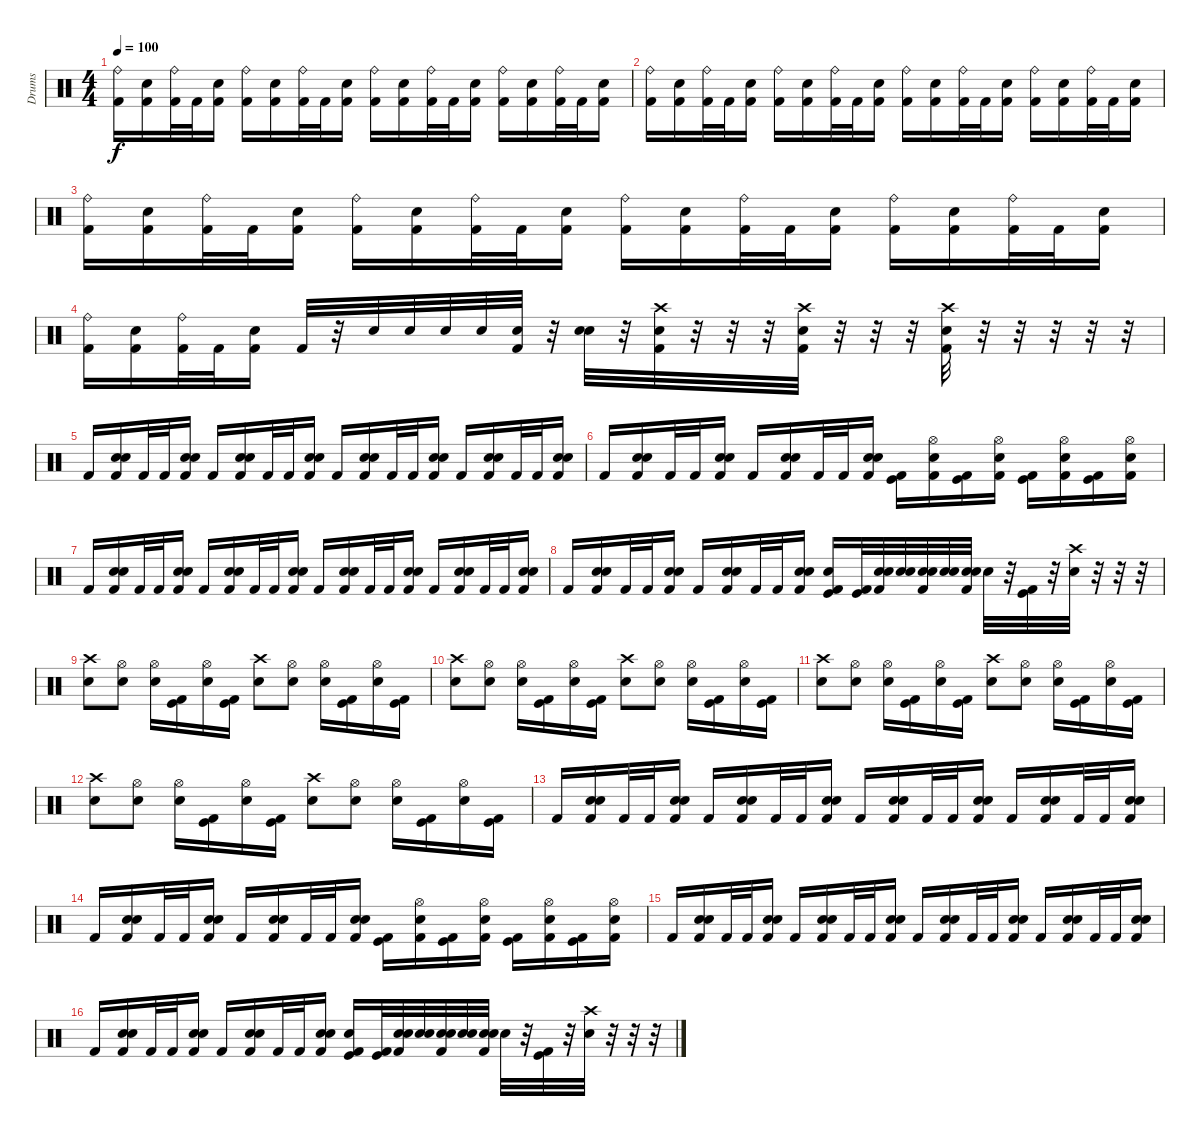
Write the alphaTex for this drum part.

\track ("Drums" "Drums") {instrument percussion}
\staff {score}
\articulation defaults
\ts (4 4)
\tempo 100
\clef neutral
\ks c
("Ride (bell)" "Kick (hit) 2").16{dy f} ("Electric Snare (hit)" "Kick (hit) 2").16 ("Ride (bell)" "Kick (hit) 2").32 "Kick (hit) 2".32 ("Electric Snare (hit)" "Kick (hit) 2").16 ("Ride (bell)" "Kick (hit) 2").16 ("Electric Snare (hit)" "Kick (hit) 2").16 ("Ride (bell)" "Kick (hit) 2").32 "Kick (hit) 2".32 ("Electric Snare (hit)" "Kick (hit) 2").16 ("Ride (bell)" "Kick (hit) 2").16 ("Electric Snare (hit)" "Kick (hit) 2").16 ("Ride (bell)" "Kick (hit) 2").32 "Kick (hit) 2".32 ("Electric Snare (hit)" "Kick (hit) 2").16 ("Ride (bell)" "Kick (hit) 2").16 ("Electric Snare (hit)" "Kick (hit) 2").16 ("Ride (bell)" "Kick (hit) 2").32 "Kick (hit) 2".32 ("Electric Snare (hit)" "Kick (hit) 2").16 |
("Ride (bell)" "Kick (hit) 2").16 ("Electric Snare (hit)" "Kick (hit) 2").16 ("Ride (bell)" "Kick (hit) 2").32 "Kick (hit) 2".32 ("Electric Snare (hit)" "Kick (hit) 2").16 ("Ride (bell)" "Kick (hit) 2").16 ("Electric Snare (hit)" "Kick (hit) 2").16 ("Ride (bell)" "Kick (hit) 2").32 "Kick (hit) 2".32 ("Electric Snare (hit)" "Kick (hit) 2").16 ("Ride (bell)" "Kick (hit) 2").16 ("Electric Snare (hit)" "Kick (hit) 2").16 ("Ride (bell)" "Kick (hit) 2").32 "Kick (hit) 2".32 ("Electric Snare (hit)" "Kick (hit) 2").16 ("Ride (bell)" "Kick (hit) 2").16 ("Electric Snare (hit)" "Kick (hit) 2").16 ("Ride (bell)" "Kick (hit) 2").32 "Kick (hit) 2".32 ("Electric Snare (hit)" "Kick (hit) 2").16 |
("Ride (bell)" "Kick (hit) 2").16 ("Electric Snare (hit)" "Kick (hit) 2").16 ("Ride (bell)" "Kick (hit) 2").32 "Kick (hit) 2".32 ("Electric Snare (hit)" "Kick (hit) 2").16 ("Ride (bell)" "Kick (hit) 2").16 ("Electric Snare (hit)" "Kick (hit) 2").16 ("Ride (bell)" "Kick (hit) 2").32 "Kick (hit) 2".32 ("Electric Snare (hit)" "Kick (hit) 2").16 ("Ride (bell)" "Kick (hit) 2").16 ("Electric Snare (hit)" "Kick (hit) 2").16 ("Ride (bell)" "Kick (hit) 2").32 "Kick (hit) 2".32 ("Electric Snare (hit)" "Kick (hit) 2").16 ("Ride (bell)" "Kick (hit) 2").16 ("Electric Snare (hit)" "Kick (hit) 2").16 ("Ride (bell)" "Kick (hit) 2").32 "Kick (hit) 2".32 ("Electric Snare (hit)" "Kick (hit) 2").16 |
("Ride (bell)" "Kick (hit) 2").16 ("Electric Snare (hit)" "Kick (hit) 2").16 ("Ride (bell)" "Kick (hit) 2").32 "Kick (hit) 2".32 ("Electric Snare (hit)" "Kick (hit) 2").16 "Kick (hit) 2".32 r.32 "Electric Snare (hit)".32 "Electric Snare (hit)".32 "Electric Snare (hit)".32 "Electric Snare (hit)".32 ("Electric Snare (hit)" "Kick (hit) 2").32 r.32 ("Electric Snare (hit)" "Electric Snare (hit)").32 r.32 ("Crash high (hit)" "Electric Snare (hit)" "Kick (hit) 2").32 r.32 r.32 r.32 ("Crash high (hit)" "Electric Snare (hit)" "Kick (hit) 2").32 r.32 r.32 r.32 ("Crash high (hit)" "Electric Snare (hit)" "Kick (hit) 2").32 r.32 r.32 r.32 r.32 r.32 |
"Kick (hit) 2".16 ("Electric Snare (hit)" "Snare (hit) 2" "Kick (hit) 2").16 "Kick (hit) 2".32 "Kick (hit) 2".32 ("Electric Snare (hit)" "Snare (hit) 2" "Kick (hit) 2").16 "Kick (hit) 2".16 ("Electric Snare (hit)" "Snare (hit) 2" "Kick (hit) 2").16 "Kick (hit) 2".32 "Kick (hit) 2".32 ("Electric Snare (hit)" "Snare (hit) 2" "Kick (hit) 2").16 "Kick (hit) 2".16 ("Electric Snare (hit)" "Snare (hit) 2" "Kick (hit) 2").16 "Kick (hit) 2".32 "Kick (hit) 2".32 ("Electric Snare (hit)" "Snare (hit) 2" "Kick (hit) 2").16 "Kick (hit) 2".16 ("Electric Snare (hit)" "Snare (hit) 2" "Kick (hit) 2").16 "Kick (hit) 2".32 "Kick (hit) 2".32 ("Electric Snare (hit)" "Snare (hit) 2" "Kick (hit) 2").16 |
"Kick (hit) 2".16 ("Electric Snare (hit)" "Snare (hit) 2" "Kick (hit) 2").16 "Kick (hit) 2".32 "Kick (hit) 2".32 ("Electric Snare (hit)" "Snare (hit) 2" "Kick (hit) 2").16 "Kick (hit) 2".16 ("Electric Snare (hit)" "Snare (hit) 2" "Kick (hit) 2").16 "Kick (hit) 2".32 "Kick (hit) 2".32 ("Electric Snare (hit)" "Snare (hit) 2" "Kick (hit) 2").16 ("Kick (hit)" "Kick (hit) 2").16 ("Hi-Hat (open)" "Snare (hit) 2" "Kick (hit) 2").16 ("Kick (hit)" "Kick (hit) 2").16 ("Hi-Hat (open)" "Snare (hit) 2" "Kick (hit) 2").16 ("Kick (hit)" "Kick (hit) 2").16 ("Hi-Hat (open)" "Snare (hit) 2" "Kick (hit) 2").16 ("Kick (hit)" "Kick (hit) 2").16 ("Hi-Hat (open)" "Snare (hit) 2" "Kick (hit) 2").16 |
"Kick (hit) 2".16 ("Electric Snare (hit)" "Snare (hit) 2" "Kick (hit) 2").16 "Kick (hit) 2".32 "Kick (hit) 2".32 ("Electric Snare (hit)" "Snare (hit) 2" "Kick (hit) 2").16 "Kick (hit) 2".16 ("Electric Snare (hit)" "Snare (hit) 2" "Kick (hit) 2").16 "Kick (hit) 2".32 "Kick (hit) 2".32 ("Electric Snare (hit)" "Snare (hit) 2" "Kick (hit) 2").16 "Kick (hit) 2".16 ("Electric Snare (hit)" "Snare (hit) 2" "Kick (hit) 2").16 "Kick (hit) 2".32 "Kick (hit) 2".32 ("Electric Snare (hit)" "Snare (hit) 2" "Kick (hit) 2").16 "Kick (hit) 2".16 ("Electric Snare (hit)" "Snare (hit) 2" "Kick (hit) 2").16 "Kick (hit) 2".32 "Kick (hit) 2".32 ("Electric Snare (hit)" "Snare (hit) 2" "Kick (hit) 2").16 |
"Kick (hit) 2".16 ("Electric Snare (hit)" "Snare (hit) 2" "Kick (hit) 2").16 "Kick (hit) 2".32 "Kick (hit) 2".32 ("Electric Snare (hit)" "Snare (hit) 2" "Kick (hit) 2").16 "Kick (hit) 2".16 ("Electric Snare (hit)" "Snare (hit) 2" "Kick (hit) 2").16 "Kick (hit) 2".32 "Kick (hit) 2".32 ("Electric Snare (hit)" "Snare (hit) 2" "Kick (hit) 2").16 ("Electric Snare (hit)" "Kick (hit)" "Kick (hit) 2").16 ("Kick (hit)" "Kick (hit) 2").32 ("Snare (hit) 2" "Electric Snare (hit)" "Kick (hit) 2").32 ("Snare (hit) 2" "Electric Snare (hit)").32 ("Snare (hit) 2" "Electric Snare (hit)" "Kick (hit) 2").32 ("Snare (hit) 2" "Electric Snare (hit)").32 ("Snare (hit) 2" "Electric Snare (hit)" "Kick (hit) 2").32 "Electric Snare (hit)".32 r.32 ("Kick (hit) 2" "Kick (hit)").32 r.32 ("Crash high (hit)" "Electric Snare (hit)").32 r.32 r.32 r.32 |
("Crash high (hit)" "Electric Snare (hit)").8 ("Hi-Hat (open)" "Electric Snare (hit)").8 ("Hi-Hat (open)" "Electric Snare (hit)").16 ("Kick (hit)" "Kick (hit) 2").16 ("Hi-Hat (open)" "Electric Snare (hit)").16 ("Kick (hit)" "Kick (hit) 2").16 ("Crash high (hit)" "Electric Snare (hit)").8 ("Hi-Hat (open)" "Electric Snare (hit)").8 ("Hi-Hat (open)" "Electric Snare (hit)").16 ("Kick (hit)" "Kick (hit) 2").16 ("Hi-Hat (open)" "Electric Snare (hit)").16 ("Kick (hit)" "Kick (hit) 2").16 |
("Crash high (hit)" "Electric Snare (hit)").8 ("Hi-Hat (open)" "Electric Snare (hit)").8 ("Hi-Hat (open)" "Electric Snare (hit)").16 ("Kick (hit)" "Kick (hit) 2").16 ("Hi-Hat (open)" "Electric Snare (hit)").16 ("Kick (hit)" "Kick (hit) 2").16 ("Crash high (hit)" "Electric Snare (hit)").8 ("Hi-Hat (open)" "Electric Snare (hit)").8 ("Hi-Hat (open)" "Electric Snare (hit)").16 ("Kick (hit)" "Kick (hit) 2").16 ("Hi-Hat (open)" "Electric Snare (hit)").16 ("Kick (hit)" "Kick (hit) 2").16 |
("Crash high (hit)" "Electric Snare (hit)").8 ("Hi-Hat (open)" "Electric Snare (hit)").8 ("Hi-Hat (open)" "Electric Snare (hit)").16 ("Kick (hit)" "Kick (hit) 2").16 ("Hi-Hat (open)" "Electric Snare (hit)").16 ("Kick (hit)" "Kick (hit) 2").16 ("Crash high (hit)" "Electric Snare (hit)").8 ("Hi-Hat (open)" "Electric Snare (hit)").8 ("Hi-Hat (open)" "Electric Snare (hit)").16 ("Kick (hit)" "Kick (hit) 2").16 ("Hi-Hat (open)" "Electric Snare (hit)").16 ("Kick (hit)" "Kick (hit) 2").16 |
("Crash high (hit)" "Electric Snare (hit)").8 ("Hi-Hat (open)" "Electric Snare (hit)").8 ("Hi-Hat (open)" "Electric Snare (hit)").16 ("Kick (hit)" "Kick (hit) 2").16 ("Hi-Hat (open)" "Electric Snare (hit)").16 ("Kick (hit)" "Kick (hit) 2").16 ("Crash high (hit)" "Electric Snare (hit)").8 ("Hi-Hat (open)" "Electric Snare (hit)").8 ("Hi-Hat (open)" "Electric Snare (hit)").16 ("Kick (hit)" "Kick (hit) 2").16 ("Hi-Hat (open)" "Electric Snare (hit)").16 ("Kick (hit)" "Kick (hit) 2").16 |
"Kick (hit) 2".16 ("Electric Snare (hit)" "Snare (hit) 2" "Kick (hit) 2").16 "Kick (hit) 2".32 "Kick (hit) 2".32 ("Electric Snare (hit)" "Snare (hit) 2" "Kick (hit) 2").16 "Kick (hit) 2".16 ("Electric Snare (hit)" "Snare (hit) 2" "Kick (hit) 2").16 "Kick (hit) 2".32 "Kick (hit) 2".32 ("Electric Snare (hit)" "Snare (hit) 2" "Kick (hit) 2").16 "Kick (hit) 2".16 ("Electric Snare (hit)" "Snare (hit) 2" "Kick (hit) 2").16 "Kick (hit) 2".32 "Kick (hit) 2".32 ("Electric Snare (hit)" "Snare (hit) 2" "Kick (hit) 2").16 "Kick (hit) 2".16 ("Electric Snare (hit)" "Snare (hit) 2" "Kick (hit) 2").16 "Kick (hit) 2".32 "Kick (hit) 2".32 ("Electric Snare (hit)" "Snare (hit) 2" "Kick (hit) 2").16 |
"Kick (hit) 2".16 ("Electric Snare (hit)" "Snare (hit) 2" "Kick (hit) 2").16 "Kick (hit) 2".32 "Kick (hit) 2".32 ("Electric Snare (hit)" "Snare (hit) 2" "Kick (hit) 2").16 "Kick (hit) 2".16 ("Electric Snare (hit)" "Snare (hit) 2" "Kick (hit) 2").16 "Kick (hit) 2".32 "Kick (hit) 2".32 ("Electric Snare (hit)" "Snare (hit) 2" "Kick (hit) 2").16 ("Kick (hit)" "Kick (hit) 2").16 ("Hi-Hat (open)" "Snare (hit) 2" "Kick (hit) 2").16 ("Kick (hit)" "Kick (hit) 2").16 ("Hi-Hat (open)" "Snare (hit) 2" "Kick (hit) 2").16 ("Kick (hit)" "Kick (hit) 2").16 ("Hi-Hat (open)" "Snare (hit) 2" "Kick (hit) 2").16 ("Kick (hit)" "Kick (hit) 2").16 ("Hi-Hat (open)" "Snare (hit) 2" "Kick (hit) 2").16 |
"Kick (hit) 2".16 ("Electric Snare (hit)" "Snare (hit) 2" "Kick (hit) 2").16 "Kick (hit) 2".32 "Kick (hit) 2".32 ("Electric Snare (hit)" "Snare (hit) 2" "Kick (hit) 2").16 "Kick (hit) 2".16 ("Electric Snare (hit)" "Snare (hit) 2" "Kick (hit) 2").16 "Kick (hit) 2".32 "Kick (hit) 2".32 ("Electric Snare (hit)" "Snare (hit) 2" "Kick (hit) 2").16 "Kick (hit) 2".16 ("Electric Snare (hit)" "Snare (hit) 2" "Kick (hit) 2").16 "Kick (hit) 2".32 "Kick (hit) 2".32 ("Electric Snare (hit)" "Snare (hit) 2" "Kick (hit) 2").16 "Kick (hit) 2".16 ("Electric Snare (hit)" "Snare (hit) 2" "Kick (hit) 2").16 "Kick (hit) 2".32 "Kick (hit) 2".32 ("Electric Snare (hit)" "Snare (hit) 2" "Kick (hit) 2").16 |
"Kick (hit) 2".16 ("Electric Snare (hit)" "Snare (hit) 2" "Kick (hit) 2").16 "Kick (hit) 2".32 "Kick (hit) 2".32 ("Electric Snare (hit)" "Snare (hit) 2" "Kick (hit) 2").16 "Kick (hit) 2".16 ("Electric Snare (hit)" "Snare (hit) 2" "Kick (hit) 2").16 "Kick (hit) 2".32 "Kick (hit) 2".32 ("Electric Snare (hit)" "Snare (hit) 2" "Kick (hit) 2").16 ("Electric Snare (hit)" "Kick (hit)" "Kick (hit) 2").16 ("Kick (hit)" "Kick (hit) 2").32 ("Snare (hit) 2" "Electric Snare (hit)" "Kick (hit) 2").32 ("Snare (hit) 2" "Electric Snare (hit)").32 ("Snare (hit) 2" "Electric Snare (hit)" "Kick (hit) 2").32 ("Snare (hit) 2" "Electric Snare (hit)").32 ("Snare (hit) 2" "Electric Snare (hit)" "Kick (hit) 2").32 "Electric Snare (hit)".32 r.32 ("Kick (hit) 2" "Kick (hit)").32 r.32 ("Crash high (hit)" "Electric Snare (hit)").32 r.32 r.32 r.32
